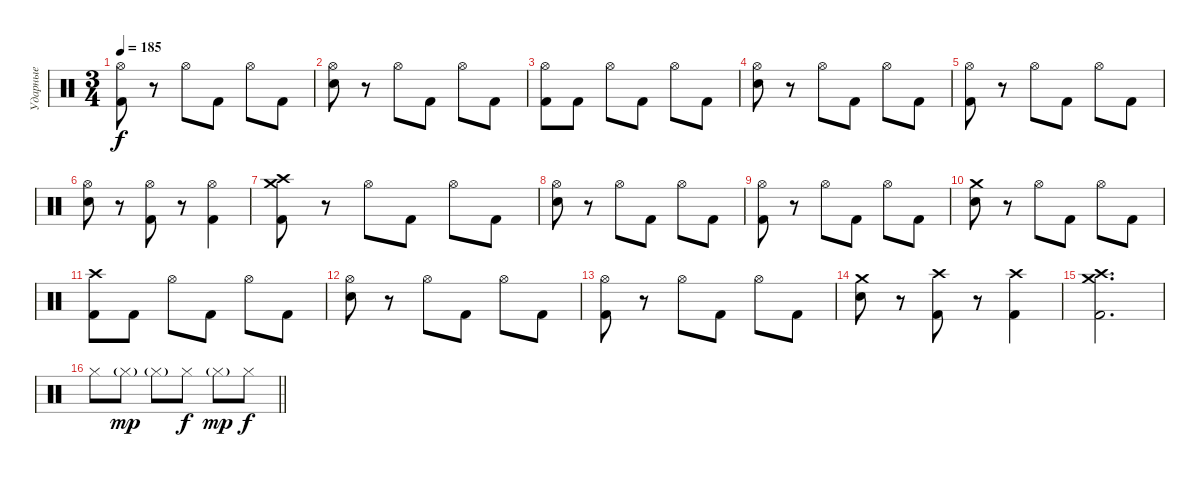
\track ("Ударные" "Ударные") {instrument percussion}
\staff {score}
\articulation defaults
\ts (3 4)
\tempo 185
\clef neutral
\ks c
("Hi-Hat (open)" "Kick (hit) 2").8{dy f} r.8 "Hi-Hat (open)".8 "Kick (hit) 2".8 "Hi-Hat (open)".8 "Kick (hit) 2".8 |
("Hi-Hat (open)" "Snare (hit) 2").8 r.8 "Hi-Hat (open)".8 "Kick (hit) 2".8 "Hi-Hat (open)".8 "Kick (hit) 2".8 |
("Hi-Hat (open)" "Kick (hit) 2").8 "Kick (hit) 2".8 "Hi-Hat (open)".8 "Kick (hit) 2".8 "Hi-Hat (open)".8 "Kick (hit) 2".8 |
("Hi-Hat (open)" "Snare (hit) 2").8 r.8 "Hi-Hat (open)".8 "Kick (hit) 2".8 "Hi-Hat (open)".8 "Kick (hit) 2".8 |
("Hi-Hat (open)" "Kick (hit) 2").8 r.8 "Hi-Hat (open)".8 "Kick (hit) 2".8 "Hi-Hat (open)".8 "Kick (hit) 2".8 |
("Hi-Hat (open)" "Snare (hit) 2").8 r.8 ("Hi-Hat (open)" "Kick (hit) 2").8 r.8 ("Hi-Hat (open)" "Kick (hit) 2").4 |
("Crash high (hit)" "Crash medium (hit)" "Kick (hit) 2").8 r.8 "Hi-Hat (open)".8 "Kick (hit) 2".8 "Hi-Hat (open)".8 "Kick (hit) 2".8 |
("Hi-Hat (open)" "Snare (hit) 2").8 r.8 "Hi-Hat (open)".8 "Kick (hit) 2".8 "Hi-Hat (open)".8 "Kick (hit) 2".8 |
("Hi-Hat (open)" "Kick (hit) 2").8 r.8 "Hi-Hat (open)".8 "Kick (hit) 2".8 "Hi-Hat (open)".8 "Kick (hit) 2".8 |
("Crash medium (hit)" "Snare (hit) 2").8 r.8 "Hi-Hat (open)".8 "Kick (hit) 2".8 "Hi-Hat (open)".8 "Kick (hit) 2".8 |
("Crash high (hit)" "Kick (hit) 2").8 "Kick (hit) 2".8 "Hi-Hat (open)".8 "Kick (hit) 2".8 "Hi-Hat (open)".8 "Kick (hit) 2".8 |
("Hi-Hat (open)" "Snare (hit) 2").8 r.8 "Hi-Hat (open)".8 "Kick (hit) 2".8 "Hi-Hat (open)".8 "Kick (hit) 2".8 |
("Hi-Hat (open)" "Kick (hit) 2").8 r.8 "Hi-Hat (open)".8 "Kick (hit) 2".8 "Hi-Hat (open)".8 "Kick (hit) 2".8 |
("Crash medium (hit)" "Snare (hit) 2").8 r.8 ("Crash high (hit)" "Kick (hit) 2").8 r.8 ("Crash high (hit)" "Kick (hit) 2").4 |
("Crash high (hit)" "Crash medium (hit)" "Kick (hit) 2").2{d} |
\barLineRight lightlight "Hi-Hat (closed)".8 "Hi-Hat (closed)"{g}.8{dy mp} "Hi-Hat (closed)"{g}.8 "Hi-Hat (closed)".8{dy f} "Hi-Hat (closed)"{g}.8{dy mp} "Hi-Hat (closed)".8{dy f}
